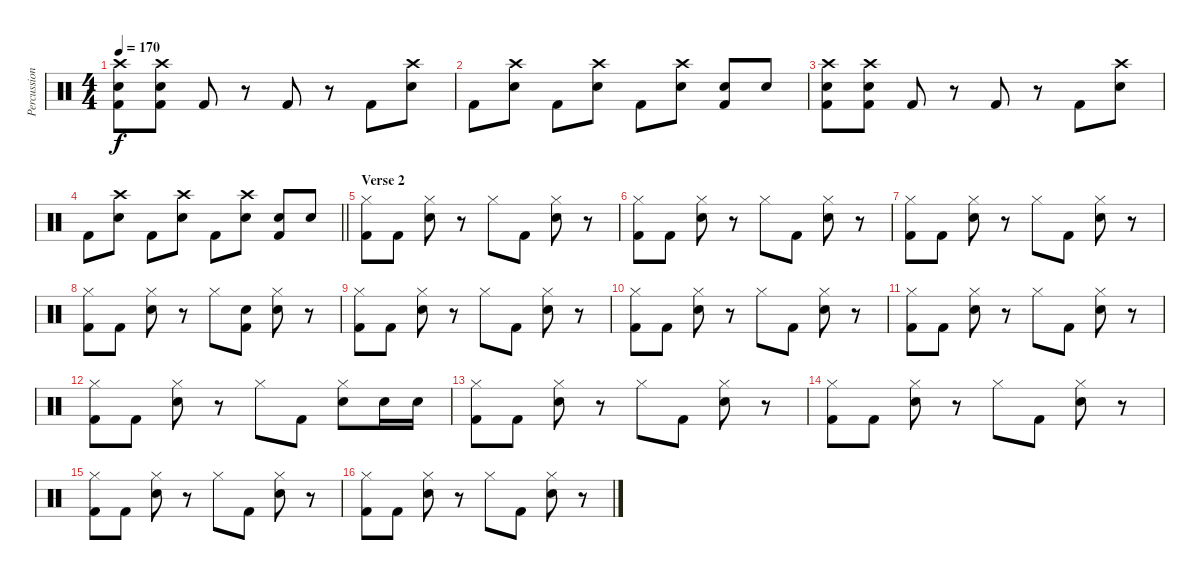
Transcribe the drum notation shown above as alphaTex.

\track ("Percussion" "Percussion") {instrument percussion}
\staff {score}
\articulation defaults
\ts (4 4)
\tempo 170
\clef neutral
\ks c
("Crash high (hit)" "Electric Snare (hit)" "Kick (hit) 2").8{dy f} ("Crash high (hit)" "Electric Snare (hit)" "Kick (hit) 2").8 "Kick (hit) 2".8 r.8 "Kick (hit) 2".8 r.8 "Kick (hit) 2".8 ("Crash high (hit)" "Electric Snare (hit)").8 |
"Kick (hit) 2".8 ("Crash high (hit)" "Electric Snare (hit)").8 "Kick (hit) 2".8 ("Crash high (hit)" "Electric Snare (hit)").8 "Kick (hit) 2".8 ("Crash high (hit)" "Electric Snare (hit)").8 ("Electric Snare (hit)" "Kick (hit) 2").8 "Electric Snare (hit)".8 |
("Crash high (hit)" "Electric Snare (hit)" "Kick (hit) 2").8 ("Crash high (hit)" "Electric Snare (hit)" "Kick (hit) 2").8 "Kick (hit) 2".8 r.8 "Kick (hit) 2".8 r.8 "Kick (hit) 2".8 ("Crash high (hit)" "Electric Snare (hit)").8 |
\barLineRight lightlight "Kick (hit) 2".8
("Crash high (hit)" "Electric Snare (hit)").8 "Kick (hit) 2".8 ("Crash high (hit)" "Electric Snare (hit)").8 "Kick (hit) 2".8 ("Crash high (hit)" "Electric Snare (hit)").8 ("Electric Snare (hit)" "Kick (hit) 2").8 "Electric Snare (hit)".8 |
\section ("" "Verse 2")
("Hi-Hat (closed)" "Kick (hit) 2").8 "Kick (hit) 2".8 ("Hi-Hat (closed)" "Electric Snare (hit)").8 r.8 "Hi-Hat (closed)".8 "Kick (hit) 2".8 ("Hi-Hat (closed)" "Electric Snare (hit)").8 r.8 |
("Hi-Hat (closed)" "Kick (hit) 2").8 "Kick (hit) 2".8 ("Hi-Hat (closed)" "Electric Snare (hit)").8 r.8 "Hi-Hat (closed)".8 "Kick (hit) 2".8 ("Hi-Hat (closed)" "Electric Snare (hit)").8 r.8 |
("Hi-Hat (closed)" "Kick (hit) 2").8 "Kick (hit) 2".8 ("Hi-Hat (closed)" "Electric Snare (hit)").8 r.8 "Hi-Hat (closed)".8 "Kick (hit) 2".8 ("Hi-Hat (closed)" "Electric Snare (hit)").8 r.8 |
("Hi-Hat (closed)" "Kick (hit) 2").8 "Kick (hit) 2".8 ("Hi-Hat (closed)" "Electric Snare (hit)").8 r.8 "Hi-Hat (closed)".8 ("Electric Snare (hit)" "Kick (hit) 2").8 ("Hi-Hat (closed)" "Electric Snare (hit)").8 r.8 |
("Hi-Hat (closed)" "Kick (hit) 2").8 "Kick (hit) 2".8 ("Hi-Hat (closed)" "Electric Snare (hit)").8 r.8 "Hi-Hat (closed)".8 "Kick (hit) 2".8 ("Hi-Hat (closed)" "Electric Snare (hit)").8 r.8 |
("Hi-Hat (closed)" "Kick (hit) 2").8 "Kick (hit) 2".8 ("Hi-Hat (closed)" "Electric Snare (hit)").8 r.8 "Hi-Hat (closed)".8 "Kick (hit) 2".8 ("Hi-Hat (closed)" "Electric Snare (hit)").8 r.8 |
("Hi-Hat (closed)" "Kick (hit) 2").8 "Kick (hit) 2".8 ("Hi-Hat (closed)" "Electric Snare (hit)").8 r.8 "Hi-Hat (closed)".8 "Kick (hit) 2".8 ("Hi-Hat (closed)" "Electric Snare (hit)").8 r.8 |
("Hi-Hat (closed)" "Kick (hit) 2").8 "Kick (hit) 2".8 ("Hi-Hat (closed)" "Electric Snare (hit)").8 r.8 "Hi-Hat (closed)".8 "Kick (hit) 2".8 ("Hi-Hat (closed)" "Electric Snare (hit)").8 "Electric Snare (hit)".16 "Electric Snare (hit)".16 |
("Hi-Hat (closed)" "Kick (hit) 2").8 "Kick (hit) 2".8 ("Hi-Hat (closed)" "Electric Snare (hit)").8 r.8 "Hi-Hat (closed)".8 "Kick (hit) 2".8 ("Hi-Hat (closed)" "Electric Snare (hit)").8 r.8 |
("Hi-Hat (closed)" "Kick (hit) 2").8 "Kick (hit) 2".8 ("Hi-Hat (closed)" "Electric Snare (hit)").8 r.8 "Hi-Hat (closed)".8 "Kick (hit) 2".8 ("Hi-Hat (closed)" "Electric Snare (hit)").8 r.8 |
("Hi-Hat (closed)" "Kick (hit) 2").8 "Kick (hit) 2".8 ("Hi-Hat (closed)" "Electric Snare (hit)").8 r.8 "Hi-Hat (closed)".8 "Kick (hit) 2".8 ("Hi-Hat (closed)" "Electric Snare (hit)").8 r.8 |
("Hi-Hat (closed)" "Kick (hit) 2").8 "Kick (hit) 2".8 ("Hi-Hat (closed)" "Electric Snare (hit)").8 r.8 "Hi-Hat (closed)".8 "Kick (hit) 2".8 ("Hi-Hat (closed)" "Electric Snare (hit)").8 r.8
